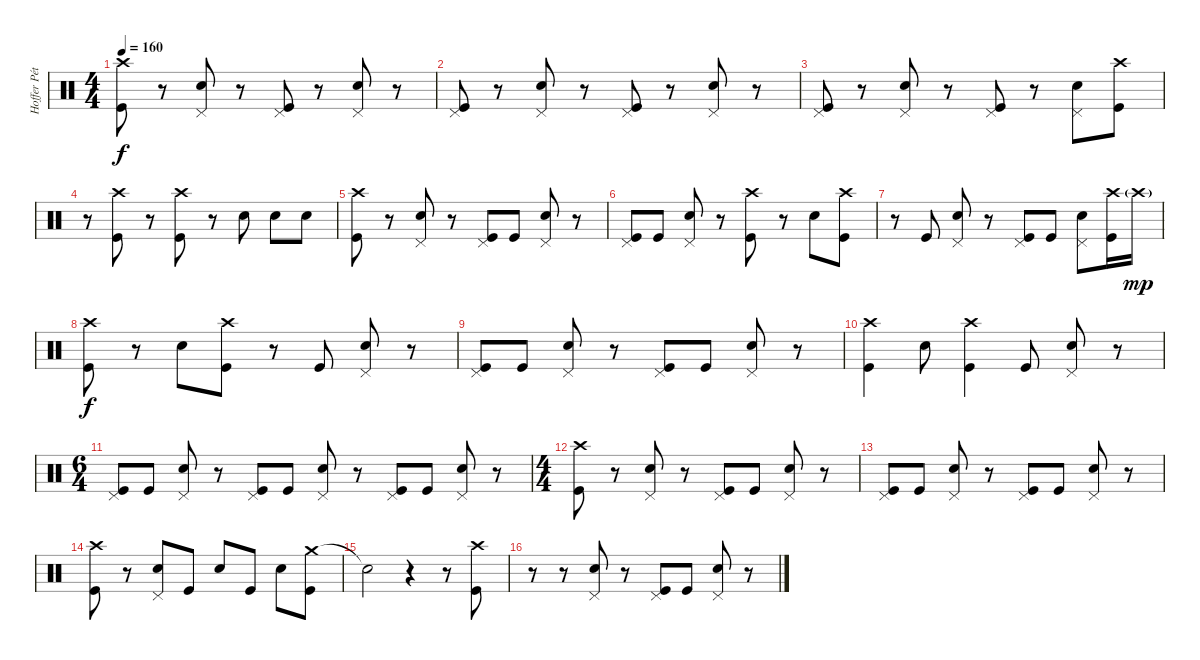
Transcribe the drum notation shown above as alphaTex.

\track ("Hoffer Péter" "Hoffer Pét") {instrument percussion}
\staff {score}
\articulation defaults
\ts (4 4)
\tempo 160
\clef neutral
\ks c
("Crash high (hit)" "Kick (hit)").8{dy f} r.8 ("Pedal Hi-Hat (hit)" "Electric Snare (hit)").8 r.8 ("Pedal Hi-Hat (hit)" "Kick (hit)").8 r.8 ("Pedal Hi-Hat (hit)" "Electric Snare (hit)").8 r.8 |
("Pedal Hi-Hat (hit)" "Kick (hit)").8 r.8 ("Pedal Hi-Hat (hit)" "Electric Snare (hit)").8 r.8 ("Pedal Hi-Hat (hit)" "Kick (hit)").8 r.8 ("Pedal Hi-Hat (hit)" "Electric Snare (hit)").8 r.8 |
("Pedal Hi-Hat (hit)" "Kick (hit)").8 r.8 ("Pedal Hi-Hat (hit)" "Electric Snare (hit)").8 r.8 ("Pedal Hi-Hat (hit)" "Kick (hit)").8 r.8 ("Pedal Hi-Hat (hit)" "Electric Snare (hit)").8 ("Crash high (hit)" "Kick (hit)").8 |
r.8 ("Crash high (hit)" "Kick (hit)").8 r.8 ("Crash high (hit)" "Kick (hit)").8 r.8 "Electric Snare (hit)".8 "Electric Snare (hit)".8 "Electric Snare (hit)".8 |
("Crash high (hit)" "Kick (hit)").8 r.8 ("Pedal Hi-Hat (hit)" "Electric Snare (hit)").8 r.8 ("Pedal Hi-Hat (hit)" "Kick (hit)").8 "Kick (hit)".8 ("Pedal Hi-Hat (hit)" "Electric Snare (hit)").8 r.8 |
("Pedal Hi-Hat (hit)" "Kick (hit)").8 "Kick (hit)".8 ("Pedal Hi-Hat (hit)" "Electric Snare (hit)").8 r.8 ("Crash high (hit)" "Kick (hit)").8 r.8 "Electric Snare (hit)".8 ("Crash high (hit)" "Kick (hit)").8 |
r.8 "Kick (hit)".8 ("Pedal Hi-Hat (hit)" "Electric Snare (hit)").8 r.8 ("Pedal Hi-Hat (hit)" "Kick (hit)").8 "Kick (hit)".8 ("Pedal Hi-Hat (hit)" "Electric Snare (hit)").8 ("Crash high (hit)" "Kick (hit)").16 "Crash high (hit)"{g}.16{dy mp} |
("Crash high (hit)" "Kick (hit)").8{dy f} r.8 "Electric Snare (hit)".8 ("Crash high (hit)" "Kick (hit)").8 r.8 "Kick (hit)".8 ("Pedal Hi-Hat (hit)" "Electric Snare (hit)").8 r.8 |
("Pedal Hi-Hat (hit)" "Kick (hit)").8 "Kick (hit)".8 ("Pedal Hi-Hat (hit)" "Electric Snare (hit)").8 r.8 ("Pedal Hi-Hat (hit)" "Kick (hit)").8 "Kick (hit)".8 ("Pedal Hi-Hat (hit)" "Electric Snare (hit)").8 r.8 |
("Crash high (hit)" "Kick (hit)").4 "Electric Snare (hit)".8 ("Crash high (hit)" "Kick (hit)").4 "Kick (hit)".8 ("Pedal Hi-Hat (hit)" "Electric Snare (hit)").8 r.8 |
\ts (6 4)
("Pedal Hi-Hat (hit)" "Kick (hit)").8 "Kick (hit)".8 ("Pedal Hi-Hat (hit)" "Electric Snare (hit)").8 r.8 ("Pedal Hi-Hat (hit)" "Kick (hit)").8 "Kick (hit)".8 ("Pedal Hi-Hat (hit)" "Electric Snare (hit)").8 r.8 ("Pedal Hi-Hat (hit)" "Kick (hit)").8 "Kick (hit)".8 ("Pedal Hi-Hat (hit)" "Electric Snare (hit)").8 r.8 |
\ts (4 4)
("Crash high (hit)" "Kick (hit)").8 r.8 ("Pedal Hi-Hat (hit)" "Electric Snare (hit)").8 r.8 ("Pedal Hi-Hat (hit)" "Kick (hit)").8 "Kick (hit)".8 ("Pedal Hi-Hat (hit)" "Electric Snare (hit)").8 r.8 |
("Pedal Hi-Hat (hit)" "Kick (hit)").8 "Kick (hit)".8 ("Pedal Hi-Hat (hit)" "Electric Snare (hit)").8 r.8 ("Pedal Hi-Hat (hit)" "Kick (hit)").8 "Kick (hit)".8 ("Pedal Hi-Hat (hit)" "Electric Snare (hit)").8 r.8 |
("Crash high (hit)" "Kick (hit)").8 r.8 ("Pedal Hi-Hat (hit)" "Electric Snare (hit)").8 "Kick (hit)".8 "Electric Snare (hit)".8 "Kick (hit)".8 "Electric Snare (hit)".8 ("Crash medium (hit)" "Kick (hit)").8 |
"Snare (hit)"{t}.2 r.4 r.8 ("Crash high (hit)" "Kick (hit)").8 |
r.8 r.8 ("Pedal Hi-Hat (hit)" "Electric Snare (hit)").8 r.8 ("Pedal Hi-Hat (hit)" "Kick (hit)").8 "Kick (hit)".8 ("Pedal Hi-Hat (hit)" "Electric Snare (hit)").8 r.8
